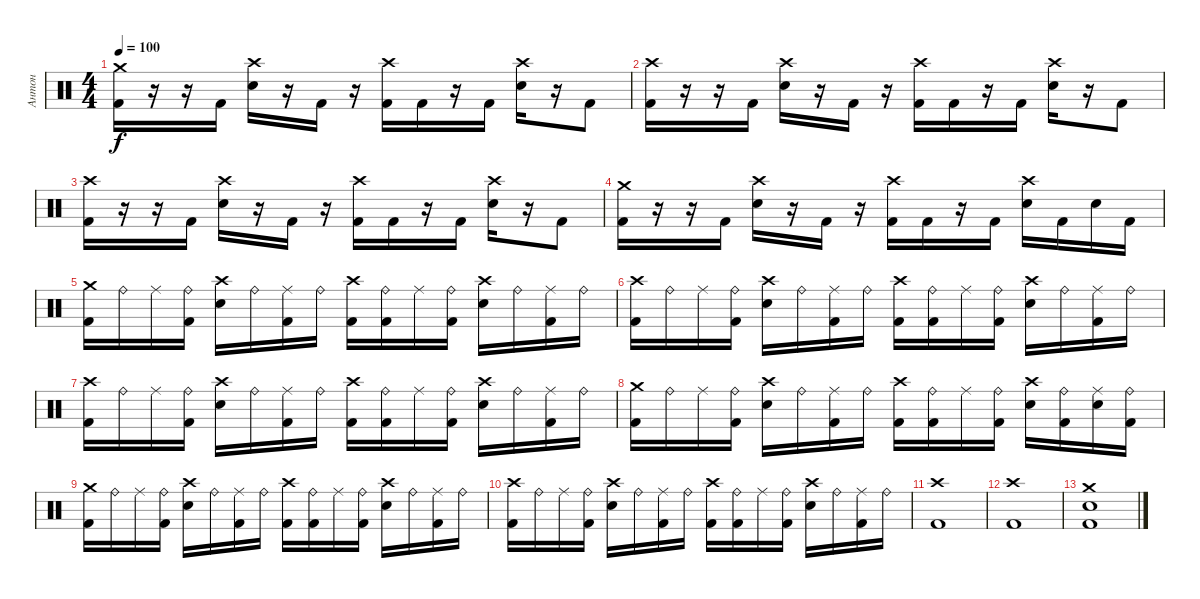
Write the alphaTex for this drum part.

\track ("Антон" "Антон") {instrument percussion}
\staff {score}
\articulation defaults
\ts (4 4)
\tempo 100
\clef neutral
\ks c
("Crash medium (hit)" "Kick (hit) 2").16{dy f} r.16 r.16 "Kick (hit) 2".16 ("Crash high (hit)" "Electric Snare (hit)").16 r.16 "Kick (hit) 2".16 r.16 ("Crash high (hit)" "Kick (hit) 2").16 "Kick (hit) 2".16 r.16 "Kick (hit) 2".16 ("Crash high (hit)" "Electric Snare (hit)").16 r.16 "Kick (hit) 2".8 |
("Crash high (hit)" "Kick (hit) 2").16 r.16 r.16 "Kick (hit) 2".16 ("Crash high (hit)" "Electric Snare (hit)").16 r.16 "Kick (hit) 2".16 r.16 ("Crash high (hit)" "Kick (hit) 2").16 "Kick (hit) 2".16 r.16 "Kick (hit) 2".16 ("Crash high (hit)" "Electric Snare (hit)").16 r.16 "Kick (hit) 2".8 |
("Crash high (hit)" "Kick (hit) 2").16 r.16 r.16 "Kick (hit) 2".16 ("Crash high (hit)" "Electric Snare (hit)").16 r.16 "Kick (hit) 2".16 r.16 ("Crash high (hit)" "Kick (hit) 2").16 "Kick (hit) 2".16 r.16 "Kick (hit) 2".16 ("Crash high (hit)" "Electric Snare (hit)").16 r.16 "Kick (hit) 2".8 |
("Crash medium (hit)" "Kick (hit) 2").16 r.16 r.16 "Kick (hit) 2".16 ("Crash high (hit)" "Electric Snare (hit)").16 r.16 "Kick (hit) 2".16 r.16 ("Crash high (hit)" "Kick (hit) 2").16 "Kick (hit) 2".16 r.16 "Kick (hit) 2".16 ("Crash high (hit)" "Electric Snare (hit)").16 "Kick (hit) 2".16 "Electric Snare (hit)".16 "Kick (hit) 2".16 |
("Crash medium (hit)" "Kick (hit) 2").16 "Ride (bell)".16 "Ride (middle)".16 ("Ride (bell)" "Kick (hit) 2").16 ("Crash high (hit)" "Electric Snare (hit)").16 "Ride (bell)".16 ("Ride (middle)" "Kick (hit) 2").16 "Ride (bell)".16 ("Crash high (hit)" "Kick (hit) 2").16 ("Ride (bell)" "Kick (hit) 2").16 "Ride (middle)".16 ("Ride (bell)" "Kick (hit) 2").16 ("Crash high (hit)" "Electric Snare (hit)").16 "Ride (bell)".16 ("Ride (middle)" "Kick (hit) 2").16 "Ride (bell)".16 |
("Crash high (hit)" "Kick (hit) 2").16 "Ride (bell)".16 "Ride (middle)".16 ("Ride (bell)" "Kick (hit) 2").16 ("Crash high (hit)" "Electric Snare (hit)").16 "Ride (bell)".16 ("Ride (middle)" "Kick (hit) 2").16 "Ride (bell)".16 ("Crash high (hit)" "Kick (hit) 2").16 ("Ride (bell)" "Kick (hit) 2").16 "Ride (middle)".16 ("Ride (bell)" "Kick (hit) 2").16 ("Crash high (hit)" "Electric Snare (hit)").16 "Ride (bell)".16 ("Ride (middle)" "Kick (hit) 2").16 "Ride (bell)".16 |
("Crash high (hit)" "Kick (hit) 2").16 "Ride (bell)".16 "Ride (middle)".16 ("Ride (bell)" "Kick (hit) 2").16 ("Crash high (hit)" "Electric Snare (hit)").16 "Ride (bell)".16 ("Ride (middle)" "Kick (hit) 2").16 "Ride (bell)".16 ("Crash high (hit)" "Kick (hit) 2").16 ("Ride (bell)" "Kick (hit) 2").16 "Ride (middle)".16 ("Ride (bell)" "Kick (hit) 2").16 ("Crash high (hit)" "Electric Snare (hit)").16 "Ride (bell)".16 ("Ride (middle)" "Kick (hit) 2").16 "Ride (bell)".16 |
("Crash medium (hit)" "Kick (hit) 2").16 "Ride (bell)".16 "Ride (middle)".16 ("Ride (bell)" "Kick (hit) 2").16 ("Crash high (hit)" "Electric Snare (hit)").16 "Ride (bell)".16 ("Ride (middle)" "Kick (hit) 2").16 "Ride (bell)".16 ("Crash high (hit)" "Kick (hit) 2").16 ("Ride (bell)" "Kick (hit) 2").16 "Ride (middle)".16 ("Ride (bell)" "Kick (hit) 2").16 ("Crash high (hit)" "Electric Snare (hit)").16 ("Ride (bell)" "Kick (hit) 2").16 ("Ride (middle)" "Electric Snare (hit)").16 ("Ride (bell)" "Kick (hit) 2").16 |
("Crash medium (hit)" "Kick (hit) 2").16 "Ride (bell)".16 "Ride (middle)".16 ("Ride (bell)" "Kick (hit) 2").16 ("Crash high (hit)" "Electric Snare (hit)").16 "Ride (bell)".16 ("Ride (middle)" "Kick (hit) 2").16 "Ride (bell)".16 ("Crash high (hit)" "Kick (hit) 2").16 ("Ride (bell)" "Kick (hit) 2").16 "Ride (middle)".16 ("Ride (bell)" "Kick (hit) 2").16 ("Crash high (hit)" "Electric Snare (hit)").16 "Ride (bell)".16 ("Ride (middle)" "Kick (hit) 2").16 "Ride (bell)".16 |
("Crash high (hit)" "Kick (hit) 2").16 "Ride (bell)".16 "Ride (middle)".16 ("Ride (bell)" "Kick (hit) 2").16 ("Crash high (hit)" "Electric Snare (hit)").16 "Ride (bell)".16 ("Ride (middle)" "Kick (hit) 2").16 "Ride (bell)".16 ("Crash high (hit)" "Kick (hit) 2").16 ("Ride (bell)" "Kick (hit) 2").16 "Ride (middle)".16 ("Ride (bell)" "Kick (hit) 2").16 ("Crash high (hit)" "Electric Snare (hit)").16 "Ride (bell)".16 ("Ride (middle)" "Kick (hit) 2").16 "Ride (bell)".16 |
("Crash high (hit)" "Kick (hit) 2").1 |
("Crash high (hit)" "Kick (hit) 2").1 |
("Crash medium (hit)" "Electric Snare (hit)" "Kick (hit) 2").1
